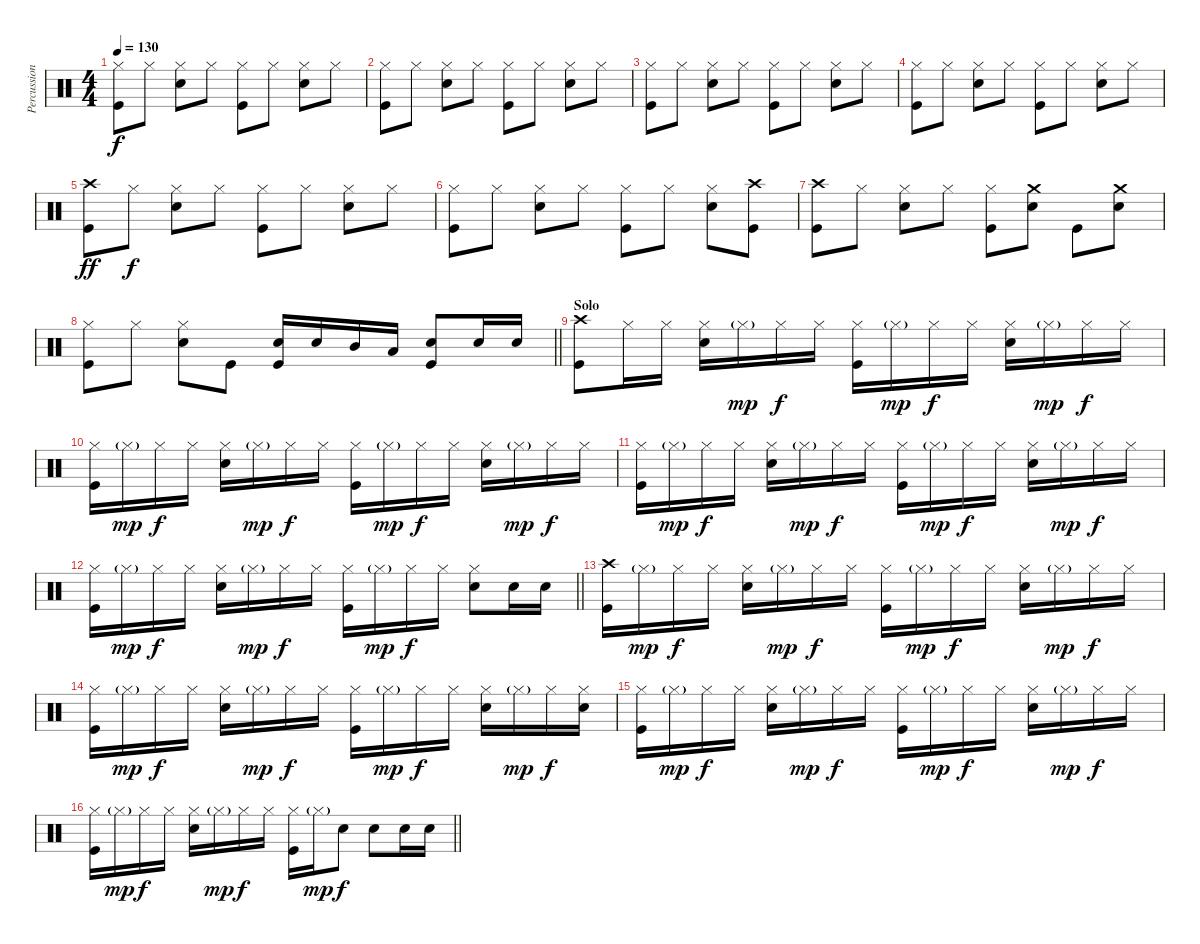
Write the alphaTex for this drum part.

\track ("Percussions" "Percussion") {instrument percussion}
\staff {score}
\articulation defaults
\ts (4 4)
\tempo 130
\clef neutral
\ks c
("Hi-Hat (closed)" "Kick (hit)").8{dy f} "Hi-Hat (closed)".8 ("Hi-Hat (closed)" "Snare (hit) 2").8 "Hi-Hat (closed)".8 ("Hi-Hat (closed)" "Kick (hit)").8 "Hi-Hat (closed)".8 ("Hi-Hat (closed)" "Snare (hit) 2").8 "Hi-Hat (closed)".8 |
("Hi-Hat (closed)" "Kick (hit)").8 "Hi-Hat (closed)".8 ("Hi-Hat (closed)" "Snare (hit) 2").8 "Hi-Hat (closed)".8 ("Hi-Hat (closed)" "Kick (hit)").8 "Hi-Hat (closed)".8 ("Hi-Hat (closed)" "Snare (hit) 2").8 "Hi-Hat (closed)".8 |
("Hi-Hat (closed)" "Kick (hit)").8 "Hi-Hat (closed)".8 ("Hi-Hat (closed)" "Snare (hit) 2").8 "Hi-Hat (closed)".8 ("Hi-Hat (closed)" "Kick (hit)").8 "Hi-Hat (closed)".8 ("Hi-Hat (closed)" "Snare (hit) 2").8 "Hi-Hat (closed)".8 |
("Hi-Hat (closed)" "Kick (hit)").8 "Hi-Hat (closed)".8 ("Hi-Hat (closed)" "Snare (hit) 2").8 "Hi-Hat (closed)".8 ("Hi-Hat (closed)" "Kick (hit)").8 "Hi-Hat (closed)".8 ("Hi-Hat (closed)" "Snare (hit) 2").8 "Hi-Hat (closed)".8 |
("Crash high (hit)" "Kick (hit)").8{dy ff} "Hi-Hat (closed)".8{dy f} ("Hi-Hat (closed)" "Snare (hit) 2").8 "Hi-Hat (closed)".8 ("Hi-Hat (closed)" "Kick (hit)").8 "Hi-Hat (closed)".8 ("Hi-Hat (closed)" "Snare (hit) 2").8 "Hi-Hat (closed)".8 |
("Hi-Hat (closed)" "Kick (hit)").8 "Hi-Hat (closed)".8 ("Hi-Hat (closed)" "Snare (hit) 2").8 "Hi-Hat (closed)".8 ("Hi-Hat (closed)" "Kick (hit)").8 "Hi-Hat (closed)".8 ("Hi-Hat (closed)" "Snare (hit) 2").8 ("Crash high (hit)" "Kick (hit)").8 |
("Crash high (hit)" "Kick (hit)").8 "Hi-Hat (closed)".8 ("Hi-Hat (closed)" "Snare (hit) 2").8 "Hi-Hat (closed)".8 ("Hi-Hat (closed)" "Kick (hit)").8 ("Crash medium (hit)" "Snare (hit) 2").8 "Kick (hit)".8 ("Crash medium (hit)" "Snare (hit) 2").8 |
\barLineRight lightlight
("Hi-Hat (closed)" "Kick (hit)").8 "Hi-Hat (closed)".8 ("Hi-Hat (closed)" "Snare (hit) 2").8 "Kick (hit)".8 ("Snare (hit) 2" "Kick (hit)").16 "Snare (hit) 2".16 "Mid Tom (hit)".16 "Low Tom (hit)".16 ("Snare (hit) 2" "Kick (hit)").8 "Snare (hit) 2".16 "Snare (hit) 2".16 |
\section ("" "Solo")
("Crash high (hit)" "Kick (hit)").8 "Hi-Hat (closed)".16 "Hi-Hat (closed)".16 ("Hi-Hat (closed)" "Snare (hit) 2").16 "Hi-Hat (closed)"{g}.16{dy mp} "Hi-Hat (closed)".16{dy f} "Hi-Hat (closed)".16 ("Hi-Hat (closed)" "Kick (hit)").16 "Hi-Hat (closed)"{g}.16{dy mp} "Hi-Hat (closed)".16{dy f} "Hi-Hat (closed)".16 ("Hi-Hat (closed)" "Snare (hit) 2").16 "Hi-Hat (closed)"{g}.16{dy mp} "Hi-Hat (closed)".16{dy f} "Hi-Hat (closed)".16 |
("Hi-Hat (closed)" "Kick (hit)").16 "Hi-Hat (closed)"{g}.16{dy mp} "Hi-Hat (closed)".16{dy f} "Hi-Hat (closed)".16 ("Hi-Hat (closed)" "Snare (hit) 2").16 "Hi-Hat (closed)"{g}.16{dy mp} "Hi-Hat (closed)".16{dy f} "Hi-Hat (closed)".16 ("Hi-Hat (closed)" "Kick (hit)").16 "Hi-Hat (closed)"{g}.16{dy mp} "Hi-Hat (closed)".16{dy f} "Hi-Hat (closed)".16 ("Hi-Hat (closed)" "Snare (hit) 2").16 "Hi-Hat (closed)"{g}.16{dy mp} "Hi-Hat (closed)".16{dy f} "Hi-Hat (closed)".16 |
("Hi-Hat (closed)" "Kick (hit)").16 "Hi-Hat (closed)"{g}.16{dy mp} "Hi-Hat (closed)".16{dy f} "Hi-Hat (closed)".16 ("Hi-Hat (closed)" "Snare (hit) 2").16 "Hi-Hat (closed)"{g}.16{dy mp} "Hi-Hat (closed)".16{dy f} "Hi-Hat (closed)".16 ("Hi-Hat (closed)" "Kick (hit)").16 "Hi-Hat (closed)"{g}.16{dy mp} "Hi-Hat (closed)".16{dy f} "Hi-Hat (closed)".16 ("Hi-Hat (closed)" "Snare (hit) 2").16 "Hi-Hat (closed)"{g}.16{dy mp} "Hi-Hat (closed)".16{dy f} "Hi-Hat (closed)".16 |
\barLineRight lightlight
("Hi-Hat (closed)" "Kick (hit)").16 "Hi-Hat (closed)"{g}.16{dy mp} "Hi-Hat (closed)".16{dy f} "Hi-Hat (closed)".16 ("Hi-Hat (closed)" "Snare (hit) 2").16 "Hi-Hat (closed)"{g}.16{dy mp} "Hi-Hat (closed)".16{dy f} "Hi-Hat (closed)".16 ("Hi-Hat (closed)" "Kick (hit)").16 "Hi-Hat (closed)"{g}.16{dy mp} "Hi-Hat (closed)".16{dy f} "Hi-Hat (closed)".16 ("Hi-Hat (closed)" "Snare (hit) 2").8 "Snare (hit) 2".16 "Snare (hit) 2".16 |
("Crash high (hit)" "Kick (hit)").16 "Hi-Hat (closed)"{g}.16{dy mp} "Hi-Hat (closed)".16{dy f} "Hi-Hat (closed)".16 ("Hi-Hat (closed)" "Snare (hit) 2").16 "Hi-Hat (closed)"{g}.16{dy mp} "Hi-Hat (closed)".16{dy f} "Hi-Hat (closed)".16 ("Hi-Hat (closed)" "Kick (hit)").16 "Hi-Hat (closed)"{g}.16{dy mp} "Hi-Hat (closed)".16{dy f} "Hi-Hat (closed)".16 ("Hi-Hat (closed)" "Snare (hit) 2").16 "Hi-Hat (closed)"{g}.16{dy mp} "Hi-Hat (closed)".16{dy f} "Hi-Hat (closed)".16 |
("Hi-Hat (closed)" "Kick (hit)").16 "Hi-Hat (closed)"{g}.16{dy mp} "Hi-Hat (closed)".16{dy f} "Hi-Hat (closed)".16 ("Hi-Hat (closed)" "Snare (hit) 2").16 "Hi-Hat (closed)"{g}.16{dy mp} "Hi-Hat (closed)".16{dy f} "Hi-Hat (closed)".16 ("Hi-Hat (closed)" "Kick (hit)").16 "Hi-Hat (closed)"{g}.16{dy mp} "Hi-Hat (closed)".16{dy f} "Hi-Hat (closed)".16 ("Hi-Hat (closed)" "Snare (hit) 2").16 "Hi-Hat (closed)"{g}.16{dy mp} "Hi-Hat (closed)".16{dy f} ("Hi-Hat (closed)" "Snare (hit) 2").16 |
("Hi-Hat (closed)" "Kick (hit)").16 "Hi-Hat (closed)"{g}.16{dy mp} "Hi-Hat (closed)".16{dy f} "Hi-Hat (closed)".16 ("Hi-Hat (closed)" "Snare (hit) 2").16 "Hi-Hat (closed)"{g}.16{dy mp} "Hi-Hat (closed)".16{dy f} "Hi-Hat (closed)".16 ("Hi-Hat (closed)" "Kick (hit)").16 "Hi-Hat (closed)"{g}.16{dy mp} "Hi-Hat (closed)".16{dy f} "Hi-Hat (closed)".16 ("Hi-Hat (closed)" "Snare (hit) 2").16 "Hi-Hat (closed)"{g}.16{dy mp} "Hi-Hat (closed)".16{dy f} "Hi-Hat (closed)".16 |
\barLineRight lightlight
("Hi-Hat (closed)" "Kick (hit)").16 "Hi-Hat (closed)"{g}.16{dy mp} "Hi-Hat (closed)".16{dy f} "Hi-Hat (closed)".16 ("Hi-Hat (closed)" "Snare (hit) 2").16 "Hi-Hat (closed)"{g}.16{dy mp} "Hi-Hat (closed)".16{dy f} "Hi-Hat (closed)".16 ("Hi-Hat (closed)" "Kick (hit)").16 "Hi-Hat (closed)"{g}.16{dy mp} "Snare (hit) 2".8{dy f} "Snare (hit) 2".8 "Snare (hit) 2".16 "Snare (hit) 2".16
